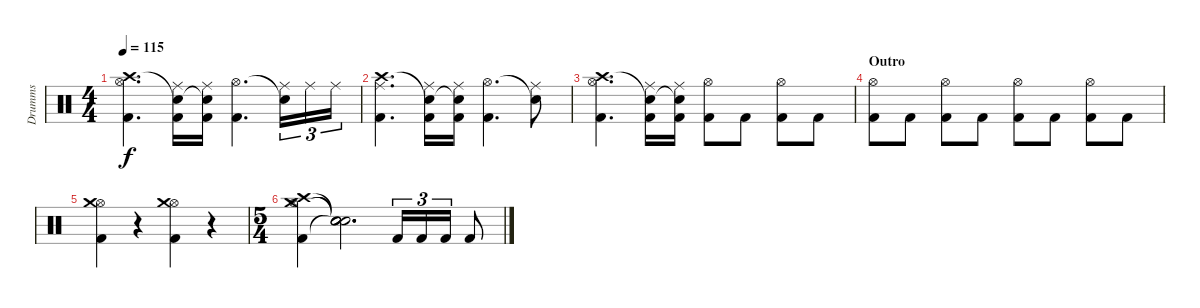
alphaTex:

\track ("Drumms" "Drumms") {instrument percussion}
\staff {score}
\articulation defaults
\ts (4 4)
\tempo 115
\clef neutral
\ks c
("Crash high (hit)" "Hi-Hat (open)" "Kick (hit) 2").4{d dy f} ("Snare (hit)"{t} "Kick (hit) 2" "Ride (middle)").16 ("Snare (hit)"{t} "Kick (hit) 2" "Ride (middle)").16 ("Hi-Hat (open)" "Kick (hit) 2").4{d} ("Snare (hit)"{t} "Ride (middle)").16{tu (3 2)} "Ride (middle)".16{tu (3 2)} "Ride (middle)".16{tu (3 2)} |
("Crash high (hit)" "Ride (middle)" "Kick (hit) 2").4{d} ("Snare (hit)"{t} "Kick (hit) 2" "Ride (middle)").16 ("Snare (hit)"{t} "Kick (hit) 2" "Ride (middle)").16 ("Hi-Hat (open)" "Kick (hit) 2").4{d} ("Snare (hit)"{t} "Ride (middle)").8 |
("Crash high (hit)" "Hi-Hat (open)" "Kick (hit) 2").4{d} ("Snare (hit)"{t} "Kick (hit) 2" "Ride (middle)").16 ("Snare (hit)"{t} "Kick (hit) 2" "Ride (middle)").16 ("Hi-Hat (open)" "Kick (hit) 2").8 "Kick (hit) 2".8 ("Hi-Hat (open)" "Kick (hit) 2").8 "Kick (hit) 2".8 |
\section ("" "Outro")
("Hi-Hat (open)" "Kick (hit) 2").8 "Kick (hit) 2".8 ("Hi-Hat (open)" "Kick (hit) 2").8 "Kick (hit) 2".8 ("Hi-Hat (open)" "Kick (hit) 2").8 "Kick (hit) 2".8 ("Hi-Hat (open)" "Kick (hit) 2").8 "Kick (hit) 2".8 |
("Hi-Hat (open)" "Kick (hit) 2" "Crash medium (hit)").4 r.4 ("Hi-Hat (open)" "Crash medium (hit)" "Kick (hit) 2").4 r.4 |
\ts (5 4)
("Hi-Hat (open)" "Crash medium (hit)" "Kick (hit) 2" "Crash high (hit)").4 ("Snare (hit)"{t} "Snare (hit)"{t} "Snare (hit)"{t} "Snare (hit)"{t}).2{d} "Kick (hit) 2".16{tu (3 2)} "Kick (hit) 2".16{tu (3 2)} "Kick (hit) 2".16{tu (3 2)} "Kick (hit) 2".8
